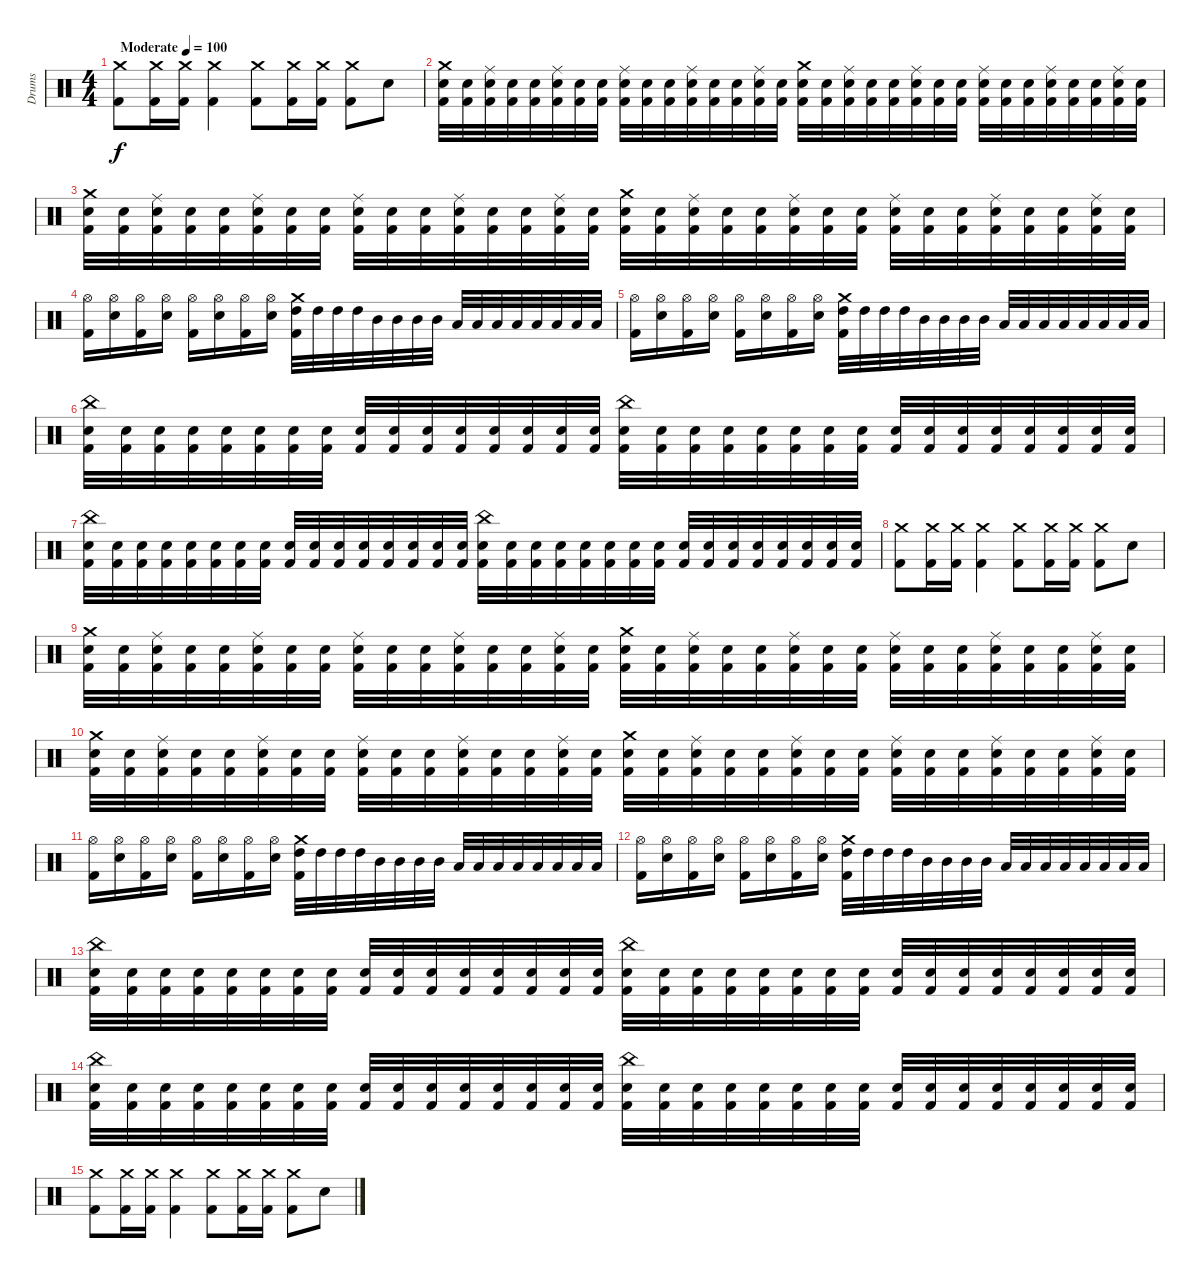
\track ("Drums" "Drums") {instrument percussion}
\staff {score}
\articulation defaults
\ts (4 4)
\tempo (100 "Moderate")
\clef neutral
\ks c
("Crash medium (hit)" "Kick (hit) 2").8{dy f} ("Crash medium (hit)" "Kick (hit) 2").16 ("Crash medium (hit)" "Kick (hit) 2").16 ("Crash medium (hit)" "Kick (hit) 2").4 ("Crash medium (hit)" "Kick (hit) 2").8 ("Crash medium (hit)" "Kick (hit) 2").16 ("Crash medium (hit)" "Kick (hit) 2").16 ("Crash medium (hit)" "Kick (hit) 2").8 "Electric Snare (hit)".8 |
("Crash medium (hit)" "Electric Snare (hit)" "Kick (hit) 2").32 ("Electric Snare (hit)" "Kick (hit) 2").32 ("Ride (middle)" "Electric Snare (hit)" "Kick (hit) 2").32 ("Electric Snare (hit)" "Kick (hit) 2").32 ("Electric Snare (hit)" "Kick (hit) 2").32 ("Ride (middle)" "Electric Snare (hit)" "Kick (hit) 2").32 ("Electric Snare (hit)" "Kick (hit) 2").32 ("Electric Snare (hit)" "Kick (hit) 2").32 ("Ride (middle)" "Electric Snare (hit)" "Kick (hit) 2").32 ("Electric Snare (hit)" "Kick (hit) 2").32 ("Electric Snare (hit)" "Kick (hit) 2").32 ("Ride (middle)" "Electric Snare (hit)" "Kick (hit) 2").32 ("Electric Snare (hit)" "Kick (hit) 2").32 ("Electric Snare (hit)" "Kick (hit) 2").32 ("Ride (middle)" "Electric Snare (hit)" "Kick (hit) 2").32 ("Electric Snare (hit)" "Kick (hit) 2").32 ("Crash medium (hit)" "Electric Snare (hit)" "Kick (hit) 2").32 ("Electric Snare (hit)" "Kick (hit) 2").32 ("Ride (middle)" "Electric Snare (hit)" "Kick (hit) 2").32 ("Electric Snare (hit)" "Kick (hit) 2").32 ("Electric Snare (hit)" "Kick (hit) 2").32 ("Ride (middle)" "Electric Snare (hit)" "Kick (hit) 2").32 ("Electric Snare (hit)" "Kick (hit) 2").32 ("Electric Snare (hit)" "Kick (hit) 2").32 ("Ride (middle)" "Electric Snare (hit)" "Kick (hit) 2").32 ("Electric Snare (hit)" "Kick (hit) 2").32 ("Electric Snare (hit)" "Kick (hit) 2").32 ("Ride (middle)" "Electric Snare (hit)" "Kick (hit) 2").32 ("Electric Snare (hit)" "Kick (hit) 2").32 ("Electric Snare (hit)" "Kick (hit) 2").32 ("Ride (middle)" "Electric Snare (hit)" "Kick (hit) 2").32 ("Electric Snare (hit)" "Kick (hit) 2").32 |
("Crash medium (hit)" "Electric Snare (hit)" "Kick (hit) 2").32 ("Electric Snare (hit)" "Kick (hit) 2").32 ("Ride (middle)" "Electric Snare (hit)" "Kick (hit) 2").32 ("Electric Snare (hit)" "Kick (hit) 2").32 ("Electric Snare (hit)" "Kick (hit) 2").32 ("Ride (middle)" "Electric Snare (hit)" "Kick (hit) 2").32 ("Electric Snare (hit)" "Kick (hit) 2").32 ("Electric Snare (hit)" "Kick (hit) 2").32 ("Ride (middle)" "Electric Snare (hit)" "Kick (hit) 2").32 ("Electric Snare (hit)" "Kick (hit) 2").32 ("Electric Snare (hit)" "Kick (hit) 2").32 ("Ride (middle)" "Electric Snare (hit)" "Kick (hit) 2").32 ("Electric Snare (hit)" "Kick (hit) 2").32 ("Electric Snare (hit)" "Kick (hit) 2").32 ("Ride (middle)" "Electric Snare (hit)" "Kick (hit) 2").32 ("Electric Snare (hit)" "Kick (hit) 2").32 ("Crash medium (hit)" "Electric Snare (hit)" "Kick (hit) 2").32 ("Electric Snare (hit)" "Kick (hit) 2").32 ("Ride (middle)" "Electric Snare (hit)" "Kick (hit) 2").32 ("Electric Snare (hit)" "Kick (hit) 2").32 ("Electric Snare (hit)" "Kick (hit) 2").32 ("Ride (middle)" "Electric Snare (hit)" "Kick (hit) 2").32 ("Electric Snare (hit)" "Kick (hit) 2").32 ("Electric Snare (hit)" "Kick (hit) 2").32 ("Ride (middle)" "Electric Snare (hit)" "Kick (hit) 2").32 ("Electric Snare (hit)" "Kick (hit) 2").32 ("Electric Snare (hit)" "Kick (hit) 2").32 ("Ride (middle)" "Electric Snare (hit)" "Kick (hit) 2").32 ("Electric Snare (hit)" "Kick (hit) 2").32 ("Electric Snare (hit)" "Kick (hit) 2").32 ("Ride (middle)" "Electric Snare (hit)" "Kick (hit) 2").32 ("Electric Snare (hit)" "Kick (hit) 2").32 |
("Hi-Hat (open)" "Kick (hit) 2").16 ("Hi-Hat (open)" "Electric Snare (hit)").16 ("Hi-Hat (open)" "Kick (hit) 2").16 ("Hi-Hat (open)" "Electric Snare (hit)").16 ("Hi-Hat (open)" "Kick (hit) 2").16 ("Hi-Hat (open)" "Electric Snare (hit)").16 ("Hi-Hat (open)" "Kick (hit) 2").16 ("Hi-Hat (open)" "Electric Snare (hit)").16 ("Crash medium (hit)" "High Tom (hit)" "Kick (hit) 2").32 "High Tom (hit)".32 "High Tom (hit)".32 "High Tom (hit)".32 "Mid Tom (hit)".32 "Mid Tom (hit)".32 "Mid Tom (hit)".32 "Mid Tom (hit)".32 "Low Tom (hit)".32 "Low Tom (hit)".32 "Low Tom (hit)".32 "Low Tom (hit)".32 "Low Floor Tom (hit)".32 "Low Floor Tom (hit)".32 "Low Floor Tom (hit)".32 "Low Floor Tom (hit)".32 |
("Hi-Hat (open)" "Kick (hit) 2").16 ("Hi-Hat (open)" "Electric Snare (hit)").16 ("Hi-Hat (open)" "Kick (hit) 2").16 ("Hi-Hat (open)" "Electric Snare (hit)").16 ("Hi-Hat (open)" "Kick (hit) 2").16 ("Hi-Hat (open)" "Electric Snare (hit)").16 ("Hi-Hat (open)" "Kick (hit) 2").16 ("Hi-Hat (open)" "Electric Snare (hit)").16 ("Crash medium (hit)" "High Tom (hit)" "Kick (hit) 2").32 "High Tom (hit)".32 "High Tom (hit)".32 "High Tom (hit)".32 "Mid Tom (hit)".32 "Mid Tom (hit)".32 "Mid Tom (hit)".32 "Mid Tom (hit)".32 "Low Tom (hit)".32 "Low Tom (hit)".32 "Low Tom (hit)".32 "Low Tom (hit)".32 "Low Floor Tom (hit)".32 "Low Floor Tom (hit)".32 "Low Floor Tom (hit)".32 "Low Floor Tom (hit)".32 |
("China (hit)" "Electric Snare (hit)" "Kick (hit) 2").32 ("Electric Snare (hit)" "Kick (hit) 2").32 ("Electric Snare (hit)" "Kick (hit) 2").32 ("Electric Snare (hit)" "Kick (hit) 2").32 ("Electric Snare (hit)" "Kick (hit) 2").32 ("Electric Snare (hit)" "Kick (hit) 2").32 ("Electric Snare (hit)" "Kick (hit) 2").32 ("Electric Snare (hit)" "Kick (hit) 2").32 ("Electric Snare (hit)" "Kick (hit) 2").32 ("Electric Snare (hit)" "Kick (hit) 2").32 ("Electric Snare (hit)" "Kick (hit) 2").32 ("Electric Snare (hit)" "Kick (hit) 2").32 ("Electric Snare (hit)" "Kick (hit) 2").32 ("Electric Snare (hit)" "Kick (hit) 2").32 ("Electric Snare (hit)" "Kick (hit) 2").32 ("Electric Snare (hit)" "Kick (hit) 2").32 ("China (hit)" "Electric Snare (hit)" "Kick (hit) 2").32 ("Electric Snare (hit)" "Kick (hit) 2").32 ("Electric Snare (hit)" "Kick (hit) 2").32 ("Electric Snare (hit)" "Kick (hit) 2").32 ("Electric Snare (hit)" "Kick (hit) 2").32 ("Electric Snare (hit)" "Kick (hit) 2").32 ("Electric Snare (hit)" "Kick (hit) 2").32 ("Electric Snare (hit)" "Kick (hit) 2").32 ("Electric Snare (hit)" "Kick (hit) 2").32 ("Electric Snare (hit)" "Kick (hit) 2").32 ("Electric Snare (hit)" "Kick (hit) 2").32 ("Electric Snare (hit)" "Kick (hit) 2").32 ("Electric Snare (hit)" "Kick (hit) 2").32 ("Electric Snare (hit)" "Kick (hit) 2").32 ("Electric Snare (hit)" "Kick (hit) 2").32 ("Electric Snare (hit)" "Kick (hit) 2").32 |
("China (hit)" "Electric Snare (hit)" "Kick (hit) 2").32 ("Electric Snare (hit)" "Kick (hit) 2").32 ("Electric Snare (hit)" "Kick (hit) 2").32 ("Electric Snare (hit)" "Kick (hit) 2").32 ("Electric Snare (hit)" "Kick (hit) 2").32 ("Electric Snare (hit)" "Kick (hit) 2").32 ("Electric Snare (hit)" "Kick (hit) 2").32 ("Electric Snare (hit)" "Kick (hit) 2").32 ("Electric Snare (hit)" "Kick (hit) 2").32 ("Electric Snare (hit)" "Kick (hit) 2").32 ("Electric Snare (hit)" "Kick (hit) 2").32 ("Electric Snare (hit)" "Kick (hit) 2").32 ("Electric Snare (hit)" "Kick (hit) 2").32 ("Electric Snare (hit)" "Kick (hit) 2").32 ("Electric Snare (hit)" "Kick (hit) 2").32 ("Electric Snare (hit)" "Kick (hit) 2").32 ("China (hit)" "Electric Snare (hit)" "Kick (hit) 2").32 ("Electric Snare (hit)" "Kick (hit) 2").32 ("Electric Snare (hit)" "Kick (hit) 2").32 ("Electric Snare (hit)" "Kick (hit) 2").32 ("Electric Snare (hit)" "Kick (hit) 2").32 ("Electric Snare (hit)" "Kick (hit) 2").32 ("Electric Snare (hit)" "Kick (hit) 2").32 ("Electric Snare (hit)" "Kick (hit) 2").32 ("Electric Snare (hit)" "Kick (hit) 2").32 ("Electric Snare (hit)" "Kick (hit) 2").32 ("Electric Snare (hit)" "Kick (hit) 2").32 ("Electric Snare (hit)" "Kick (hit) 2").32 ("Electric Snare (hit)" "Kick (hit) 2").32 ("Electric Snare (hit)" "Kick (hit) 2").32 ("Electric Snare (hit)" "Kick (hit) 2").32 ("Electric Snare (hit)" "Kick (hit) 2").32 |
("Crash medium (hit)" "Kick (hit) 2").8 ("Crash medium (hit)" "Kick (hit) 2").16 ("Crash medium (hit)" "Kick (hit) 2").16 ("Crash medium (hit)" "Kick (hit) 2").4 ("Crash medium (hit)" "Kick (hit) 2").8 ("Crash medium (hit)" "Kick (hit) 2").16 ("Crash medium (hit)" "Kick (hit) 2").16 ("Crash medium (hit)" "Kick (hit) 2").8 "Electric Snare (hit)".8 |
("Crash medium (hit)" "Electric Snare (hit)" "Kick (hit) 2").32 ("Electric Snare (hit)" "Kick (hit) 2").32 ("Ride (middle)" "Electric Snare (hit)" "Kick (hit) 2").32 ("Electric Snare (hit)" "Kick (hit) 2").32 ("Electric Snare (hit)" "Kick (hit) 2").32 ("Ride (middle)" "Electric Snare (hit)" "Kick (hit) 2").32 ("Electric Snare (hit)" "Kick (hit) 2").32 ("Electric Snare (hit)" "Kick (hit) 2").32 ("Ride (middle)" "Electric Snare (hit)" "Kick (hit) 2").32 ("Electric Snare (hit)" "Kick (hit) 2").32 ("Electric Snare (hit)" "Kick (hit) 2").32 ("Ride (middle)" "Electric Snare (hit)" "Kick (hit) 2").32 ("Electric Snare (hit)" "Kick (hit) 2").32 ("Electric Snare (hit)" "Kick (hit) 2").32 ("Ride (middle)" "Electric Snare (hit)" "Kick (hit) 2").32 ("Electric Snare (hit)" "Kick (hit) 2").32 ("Crash medium (hit)" "Electric Snare (hit)" "Kick (hit) 2").32 ("Electric Snare (hit)" "Kick (hit) 2").32 ("Ride (middle)" "Electric Snare (hit)" "Kick (hit) 2").32 ("Electric Snare (hit)" "Kick (hit) 2").32 ("Electric Snare (hit)" "Kick (hit) 2").32 ("Ride (middle)" "Electric Snare (hit)" "Kick (hit) 2").32 ("Electric Snare (hit)" "Kick (hit) 2").32 ("Electric Snare (hit)" "Kick (hit) 2").32 ("Ride (middle)" "Electric Snare (hit)" "Kick (hit) 2").32 ("Electric Snare (hit)" "Kick (hit) 2").32 ("Electric Snare (hit)" "Kick (hit) 2").32 ("Ride (middle)" "Electric Snare (hit)" "Kick (hit) 2").32 ("Electric Snare (hit)" "Kick (hit) 2").32 ("Electric Snare (hit)" "Kick (hit) 2").32 ("Ride (middle)" "Electric Snare (hit)" "Kick (hit) 2").32 ("Electric Snare (hit)" "Kick (hit) 2").32 |
("Crash medium (hit)" "Electric Snare (hit)" "Kick (hit) 2").32 ("Electric Snare (hit)" "Kick (hit) 2").32 ("Ride (middle)" "Electric Snare (hit)" "Kick (hit) 2").32 ("Electric Snare (hit)" "Kick (hit) 2").32 ("Electric Snare (hit)" "Kick (hit) 2").32 ("Ride (middle)" "Electric Snare (hit)" "Kick (hit) 2").32 ("Electric Snare (hit)" "Kick (hit) 2").32 ("Electric Snare (hit)" "Kick (hit) 2").32 ("Ride (middle)" "Electric Snare (hit)" "Kick (hit) 2").32 ("Electric Snare (hit)" "Kick (hit) 2").32 ("Electric Snare (hit)" "Kick (hit) 2").32 ("Ride (middle)" "Electric Snare (hit)" "Kick (hit) 2").32 ("Electric Snare (hit)" "Kick (hit) 2").32 ("Electric Snare (hit)" "Kick (hit) 2").32 ("Ride (middle)" "Electric Snare (hit)" "Kick (hit) 2").32 ("Electric Snare (hit)" "Kick (hit) 2").32 ("Crash medium (hit)" "Electric Snare (hit)" "Kick (hit) 2").32 ("Electric Snare (hit)" "Kick (hit) 2").32 ("Ride (middle)" "Electric Snare (hit)" "Kick (hit) 2").32 ("Electric Snare (hit)" "Kick (hit) 2").32 ("Electric Snare (hit)" "Kick (hit) 2").32 ("Ride (middle)" "Electric Snare (hit)" "Kick (hit) 2").32 ("Electric Snare (hit)" "Kick (hit) 2").32 ("Electric Snare (hit)" "Kick (hit) 2").32 ("Ride (middle)" "Electric Snare (hit)" "Kick (hit) 2").32 ("Electric Snare (hit)" "Kick (hit) 2").32 ("Electric Snare (hit)" "Kick (hit) 2").32 ("Ride (middle)" "Electric Snare (hit)" "Kick (hit) 2").32 ("Electric Snare (hit)" "Kick (hit) 2").32 ("Electric Snare (hit)" "Kick (hit) 2").32 ("Ride (middle)" "Electric Snare (hit)" "Kick (hit) 2").32 ("Electric Snare (hit)" "Kick (hit) 2").32 |
("Hi-Hat (open)" "Kick (hit) 2").16 ("Hi-Hat (open)" "Electric Snare (hit)").16 ("Hi-Hat (open)" "Kick (hit) 2").16 ("Hi-Hat (open)" "Electric Snare (hit)").16 ("Hi-Hat (open)" "Kick (hit) 2").16 ("Hi-Hat (open)" "Electric Snare (hit)").16 ("Hi-Hat (open)" "Kick (hit) 2").16 ("Hi-Hat (open)" "Electric Snare (hit)").16 ("Crash medium (hit)" "High Tom (hit)" "Kick (hit) 2").32 "High Tom (hit)".32 "High Tom (hit)".32 "High Tom (hit)".32 "Mid Tom (hit)".32 "Mid Tom (hit)".32 "Mid Tom (hit)".32 "Mid Tom (hit)".32 "Low Tom (hit)".32 "Low Tom (hit)".32 "Low Tom (hit)".32 "Low Tom (hit)".32 "Low Floor Tom (hit)".32 "Low Floor Tom (hit)".32 "Low Floor Tom (hit)".32 "Low Floor Tom (hit)".32 |
("Hi-Hat (open)" "Kick (hit) 2").16 ("Hi-Hat (open)" "Electric Snare (hit)").16 ("Hi-Hat (open)" "Kick (hit) 2").16 ("Hi-Hat (open)" "Electric Snare (hit)").16 ("Hi-Hat (open)" "Kick (hit) 2").16 ("Hi-Hat (open)" "Electric Snare (hit)").16 ("Hi-Hat (open)" "Kick (hit) 2").16 ("Hi-Hat (open)" "Electric Snare (hit)").16 ("Crash medium (hit)" "High Tom (hit)" "Kick (hit) 2").32 "High Tom (hit)".32 "High Tom (hit)".32 "High Tom (hit)".32 "Mid Tom (hit)".32 "Mid Tom (hit)".32 "Mid Tom (hit)".32 "Mid Tom (hit)".32 "Low Tom (hit)".32 "Low Tom (hit)".32 "Low Tom (hit)".32 "Low Tom (hit)".32 "Low Floor Tom (hit)".32 "Low Floor Tom (hit)".32 "Low Floor Tom (hit)".32 "Low Floor Tom (hit)".32 |
("China (hit)" "Electric Snare (hit)" "Kick (hit) 2").32 ("Electric Snare (hit)" "Kick (hit) 2").32 ("Electric Snare (hit)" "Kick (hit) 2").32 ("Electric Snare (hit)" "Kick (hit) 2").32 ("Electric Snare (hit)" "Kick (hit) 2").32 ("Electric Snare (hit)" "Kick (hit) 2").32 ("Electric Snare (hit)" "Kick (hit) 2").32 ("Electric Snare (hit)" "Kick (hit) 2").32 ("Electric Snare (hit)" "Kick (hit) 2").32 ("Electric Snare (hit)" "Kick (hit) 2").32 ("Electric Snare (hit)" "Kick (hit) 2").32 ("Electric Snare (hit)" "Kick (hit) 2").32 ("Electric Snare (hit)" "Kick (hit) 2").32 ("Electric Snare (hit)" "Kick (hit) 2").32 ("Electric Snare (hit)" "Kick (hit) 2").32 ("Electric Snare (hit)" "Kick (hit) 2").32 ("China (hit)" "Electric Snare (hit)" "Kick (hit) 2").32 ("Electric Snare (hit)" "Kick (hit) 2").32 ("Electric Snare (hit)" "Kick (hit) 2").32 ("Electric Snare (hit)" "Kick (hit) 2").32 ("Electric Snare (hit)" "Kick (hit) 2").32 ("Electric Snare (hit)" "Kick (hit) 2").32 ("Electric Snare (hit)" "Kick (hit) 2").32 ("Electric Snare (hit)" "Kick (hit) 2").32 ("Electric Snare (hit)" "Kick (hit) 2").32 ("Electric Snare (hit)" "Kick (hit) 2").32 ("Electric Snare (hit)" "Kick (hit) 2").32 ("Electric Snare (hit)" "Kick (hit) 2").32 ("Electric Snare (hit)" "Kick (hit) 2").32 ("Electric Snare (hit)" "Kick (hit) 2").32 ("Electric Snare (hit)" "Kick (hit) 2").32 ("Electric Snare (hit)" "Kick (hit) 2").32 |
("China (hit)" "Electric Snare (hit)" "Kick (hit) 2").32 ("Electric Snare (hit)" "Kick (hit) 2").32 ("Electric Snare (hit)" "Kick (hit) 2").32 ("Electric Snare (hit)" "Kick (hit) 2").32 ("Electric Snare (hit)" "Kick (hit) 2").32 ("Electric Snare (hit)" "Kick (hit) 2").32 ("Electric Snare (hit)" "Kick (hit) 2").32 ("Electric Snare (hit)" "Kick (hit) 2").32 ("Electric Snare (hit)" "Kick (hit) 2").32 ("Electric Snare (hit)" "Kick (hit) 2").32 ("Electric Snare (hit)" "Kick (hit) 2").32 ("Electric Snare (hit)" "Kick (hit) 2").32 ("Electric Snare (hit)" "Kick (hit) 2").32 ("Electric Snare (hit)" "Kick (hit) 2").32 ("Electric Snare (hit)" "Kick (hit) 2").32 ("Electric Snare (hit)" "Kick (hit) 2").32 ("China (hit)" "Electric Snare (hit)" "Kick (hit) 2").32 ("Electric Snare (hit)" "Kick (hit) 2").32 ("Electric Snare (hit)" "Kick (hit) 2").32 ("Electric Snare (hit)" "Kick (hit) 2").32 ("Electric Snare (hit)" "Kick (hit) 2").32 ("Electric Snare (hit)" "Kick (hit) 2").32 ("Electric Snare (hit)" "Kick (hit) 2").32 ("Electric Snare (hit)" "Kick (hit) 2").32 ("Electric Snare (hit)" "Kick (hit) 2").32 ("Electric Snare (hit)" "Kick (hit) 2").32 ("Electric Snare (hit)" "Kick (hit) 2").32 ("Electric Snare (hit)" "Kick (hit) 2").32 ("Electric Snare (hit)" "Kick (hit) 2").32 ("Electric Snare (hit)" "Kick (hit) 2").32 ("Electric Snare (hit)" "Kick (hit) 2").32 ("Electric Snare (hit)" "Kick (hit) 2").32 |
("Crash medium (hit)" "Kick (hit) 2").8 ("Crash medium (hit)" "Kick (hit) 2").16 ("Crash medium (hit)" "Kick (hit) 2").16 ("Crash medium (hit)" "Kick (hit) 2").4 ("Crash medium (hit)" "Kick (hit) 2").8 ("Crash medium (hit)" "Kick (hit) 2").16 ("Crash medium (hit)" "Kick (hit) 2").16 ("Crash medium (hit)" "Kick (hit) 2").8 "Electric Snare (hit)".8
